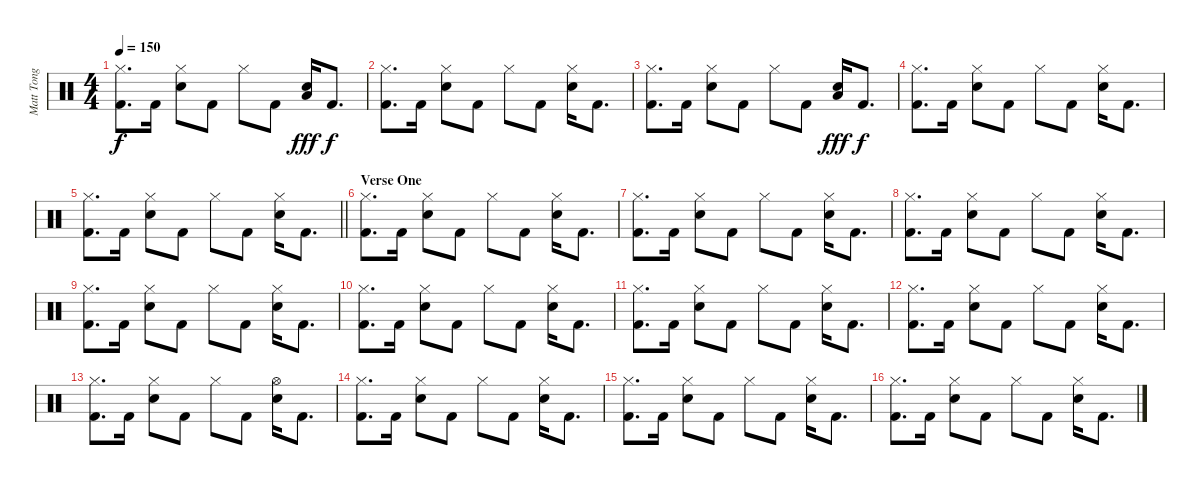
\track ("Matt Tong" "Matt Tong") {instrument percussion}
\staff {score}
\articulation defaults
\ts (4 4)
\tempo 150
\clef neutral
\ks c
("Hi-Hat (closed)" "Kick (hit) 2").8{d dy f} "Kick (hit) 2".16 ("Hi-Hat (closed)" "Electric Snare (hit)").8 "Kick (hit) 2".8 "Hi-Hat (closed)".8 "Kick (hit) 2".8 ("Electric Snare (hit)" "Low Tom (hit)").16{dy fff} "Kick (hit) 2".8{d dy f} |
("Hi-Hat (closed)" "Kick (hit) 2").8{d} "Kick (hit) 2".16 ("Hi-Hat (closed)" "Electric Snare (hit)").8 "Kick (hit) 2".8 "Hi-Hat (closed)".8 "Kick (hit) 2".8 ("Hi-Hat (closed)" "Electric Snare (hit)").16 "Kick (hit) 2".8{d} |
("Hi-Hat (closed)" "Kick (hit) 2").8{d} "Kick (hit) 2".16 ("Hi-Hat (closed)" "Electric Snare (hit)").8 "Kick (hit) 2".8 "Hi-Hat (closed)".8 "Kick (hit) 2".8 ("Electric Snare (hit)" "Low Tom (hit)").16{dy fff} "Kick (hit) 2".8{d dy f} |
("Hi-Hat (closed)" "Kick (hit) 2").8{d} "Kick (hit) 2".16 ("Hi-Hat (closed)" "Electric Snare (hit)").8 "Kick (hit) 2".8 "Hi-Hat (closed)".8 "Kick (hit) 2".8 ("Hi-Hat (closed)" "Electric Snare (hit)").16 "Kick (hit) 2".8{d} |
\barLineRight lightlight
("Hi-Hat (closed)" "Kick (hit) 2").8{d} "Kick (hit) 2".16 ("Hi-Hat (closed)" "Electric Snare (hit)").8 "Kick (hit) 2".8 "Hi-Hat (closed)".8 "Kick (hit) 2".8 ("Hi-Hat (closed)" "Electric Snare (hit)").16 "Kick (hit) 2".8{d} |
\section ("" "Verse One")
("Hi-Hat (closed)" "Kick (hit) 2").8{d} "Kick (hit) 2".16 ("Hi-Hat (closed)" "Electric Snare (hit)").8 "Kick (hit) 2".8 "Hi-Hat (closed)".8 "Kick (hit) 2".8 ("Hi-Hat (closed)" "Electric Snare (hit)").16 "Kick (hit) 2".8{d} |
("Hi-Hat (closed)" "Kick (hit) 2").8{d} "Kick (hit) 2".16 ("Hi-Hat (closed)" "Electric Snare (hit)").8 "Kick (hit) 2".8 "Hi-Hat (closed)".8 "Kick (hit) 2".8 ("Hi-Hat (closed)" "Electric Snare (hit)").16 "Kick (hit) 2".8{d} |
("Hi-Hat (closed)" "Kick (hit) 2").8{d} "Kick (hit) 2".16 ("Hi-Hat (closed)" "Electric Snare (hit)").8 "Kick (hit) 2".8 "Hi-Hat (closed)".8 "Kick (hit) 2".8 ("Hi-Hat (closed)" "Electric Snare (hit)").16 "Kick (hit) 2".8{d} |
("Hi-Hat (closed)" "Kick (hit) 2").8{d} "Kick (hit) 2".16 ("Hi-Hat (closed)" "Electric Snare (hit)").8 "Kick (hit) 2".8 "Hi-Hat (closed)".8 "Kick (hit) 2".8 ("Hi-Hat (closed)" "Electric Snare (hit)").16 "Kick (hit) 2".8{d} |
("Hi-Hat (closed)" "Kick (hit) 2").8{d} "Kick (hit) 2".16 ("Hi-Hat (closed)" "Electric Snare (hit)").8 "Kick (hit) 2".8 "Hi-Hat (closed)".8 "Kick (hit) 2".8 ("Hi-Hat (closed)" "Electric Snare (hit)").16 "Kick (hit) 2".8{d} |
("Hi-Hat (closed)" "Kick (hit) 2").8{d} "Kick (hit) 2".16 ("Hi-Hat (closed)" "Electric Snare (hit)").8 "Kick (hit) 2".8 "Hi-Hat (closed)".8 "Kick (hit) 2".8 ("Hi-Hat (closed)" "Electric Snare (hit)").16 "Kick (hit) 2".8{d} |
("Hi-Hat (closed)" "Kick (hit) 2").8{d} "Kick (hit) 2".16 ("Hi-Hat (closed)" "Electric Snare (hit)").8 "Kick (hit) 2".8 "Hi-Hat (closed)".8 "Kick (hit) 2".8 ("Hi-Hat (closed)" "Electric Snare (hit)").16 "Kick (hit) 2".8{d} |
("Hi-Hat (closed)" "Kick (hit) 2").8{d} "Kick (hit) 2".16 ("Hi-Hat (closed)" "Electric Snare (hit)").8 "Kick (hit) 2".8 "Hi-Hat (closed)".8 "Kick (hit) 2".8 ("Hi-Hat (open)" "Electric Snare (hit)").16 "Kick (hit) 2".8{d} |
("Hi-Hat (closed)" "Kick (hit) 2").8{d} "Kick (hit) 2".16 ("Hi-Hat (closed)" "Electric Snare (hit)").8 "Kick (hit) 2".8 "Hi-Hat (closed)".8 "Kick (hit) 2".8 ("Hi-Hat (closed)" "Electric Snare (hit)").16 "Kick (hit) 2".8{d} |
("Hi-Hat (closed)" "Kick (hit) 2").8{d} "Kick (hit) 2".16 ("Hi-Hat (closed)" "Electric Snare (hit)").8 "Kick (hit) 2".8 "Hi-Hat (closed)".8 "Kick (hit) 2".8 ("Hi-Hat (closed)" "Electric Snare (hit)").16 "Kick (hit) 2".8{d} |
("Hi-Hat (closed)" "Kick (hit) 2").8{d} "Kick (hit) 2".16 ("Hi-Hat (closed)" "Electric Snare (hit)").8 "Kick (hit) 2".8 "Hi-Hat (closed)".8 "Kick (hit) 2".8 ("Hi-Hat (closed)" "Electric Snare (hit)").16 "Kick (hit) 2".8{d}
